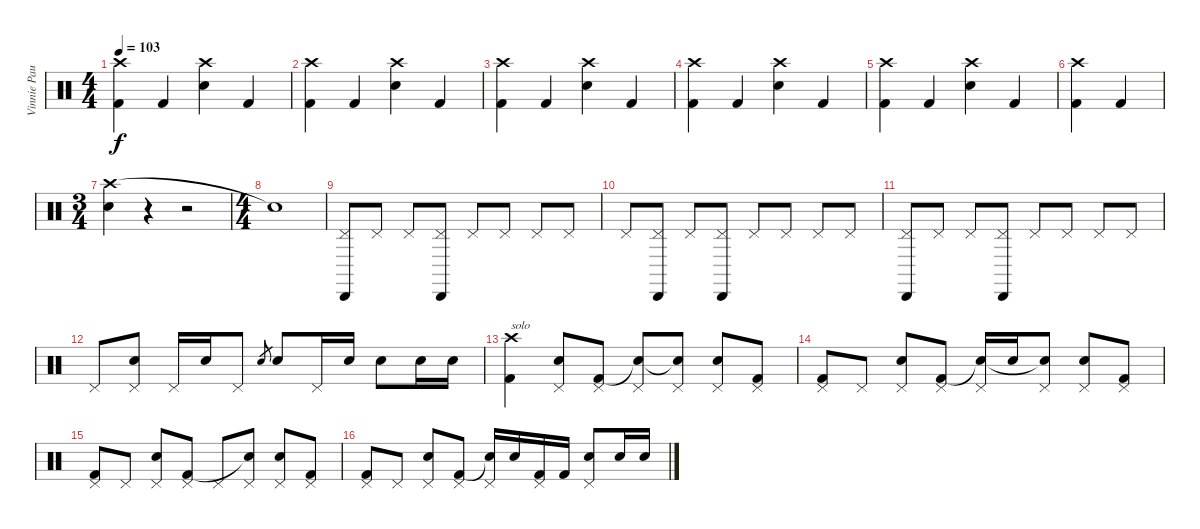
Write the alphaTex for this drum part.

\track ("Vinnie Paul" "Vinnie Pau") {instrument percussion}
\staff {score}
\articulation defaults
\ts (4 4)
\tempo 103
\clef neutral
\ks c
("Crash high (hit)" "Kick (hit) 2").4{dy f} "Kick (hit) 2".4 ("Crash high (hit)" "Electric Snare (hit)").4 "Kick (hit) 2".4 |
("Crash high (hit)" "Kick (hit) 2").4 "Kick (hit) 2".4 ("Crash high (hit)" "Electric Snare (hit)").4 "Kick (hit) 2".4 |
("Crash high (hit)" "Kick (hit) 2").4 "Kick (hit) 2".4 ("Crash high (hit)" "Electric Snare (hit)").4 "Kick (hit) 2".4 |
("Crash high (hit)" "Kick (hit) 2").4 "Kick (hit) 2".4 ("Crash high (hit)" "Electric Snare (hit)").4 "Kick (hit) 2".4 |
("Crash high (hit)" "Kick (hit) 2").4 "Kick (hit) 2".4 ("Crash high (hit)" "Electric Snare (hit)").4 "Kick (hit) 2".4 |
("Crash high (hit)" "Kick (hit) 2").4 "Kick (hit) 2".4 |
\ts (3 4)
("Crash high (hit)" "Electric Snare (hit)").4 r.4 r.2 |
\ts (4 4)
"Snare (hit)"{t}.1 |
("Pedal Hi-Hat (hit)" "Cabasa (hit)").8 "Pedal Hi-Hat (hit)".8 "Pedal Hi-Hat (hit)".8 ("Pedal Hi-Hat (hit)" "Cabasa (hit)").8 "Pedal Hi-Hat (hit)".8 "Pedal Hi-Hat (hit)".8 "Pedal Hi-Hat (hit)".8 "Pedal Hi-Hat (hit)".8 |
"Pedal Hi-Hat (hit)".8 ("Pedal Hi-Hat (hit)" "Cabasa (hit)").8 "Pedal Hi-Hat (hit)".8 ("Pedal Hi-Hat (hit)" "Cabasa (hit)").8 "Pedal Hi-Hat (hit)".8 "Pedal Hi-Hat (hit)".8 "Pedal Hi-Hat (hit)".8 "Pedal Hi-Hat (hit)".8 |
("Pedal Hi-Hat (hit)" "Cabasa (hit)").8 "Pedal Hi-Hat (hit)".8 "Pedal Hi-Hat (hit)".8 ("Pedal Hi-Hat (hit)" "Cabasa (hit)").8 "Pedal Hi-Hat (hit)".8 "Pedal Hi-Hat (hit)".8 "Pedal Hi-Hat (hit)".8 "Pedal Hi-Hat (hit)".8 |
"Pedal Hi-Hat (hit)".8 ("Pedal Hi-Hat (hit)" "Electric Snare (hit)").8 "Pedal Hi-Hat (hit)".16 "Electric Snare (hit)".16 "Pedal Hi-Hat (hit)".8 "Electric Snare (hit)".8{gr} "Electric Snare (hit)".8 "Pedal Hi-Hat (hit)".16 "Electric Snare (hit)".16 "Electric Snare (hit)".8 "Electric Snare (hit)".16 "Electric Snare (hit)".16 |
("Crash high (hit)" "Kick (hit) 2").4{txt "solo"} ("Pedal Hi-Hat (hit)" "Electric Snare (hit)").8 ("Pedal Hi-Hat (hit)" "Kick (hit) 2").8 ("Pedal Hi-Hat (hit)" "Snare (hit)"{t}).8 ("Pedal Hi-Hat (hit)" "Snare (hit)"{t}).8 ("Pedal Hi-Hat (hit)" "Electric Snare (hit)").8 ("Pedal Hi-Hat (hit)" "Kick (hit) 2").8 |
("Pedal Hi-Hat (hit)" "Kick (hit) 2").8 "Pedal Hi-Hat (hit)".8 ("Pedal Hi-Hat (hit)" "Electric Snare (hit)").8 ("Pedal Hi-Hat (hit)" "Kick (hit) 2").8 ("Pedal Hi-Hat (hit)" "Snare (hit)"{t}).16 "Electric Snare (hit)".16 ("Pedal Hi-Hat (hit)" "Snare (hit)"{t}).8 ("Pedal Hi-Hat (hit)" "Electric Snare (hit)").8 ("Pedal Hi-Hat (hit)" "Kick (hit) 2").8 |
("Pedal Hi-Hat (hit)" "Kick (hit) 2").8 "Pedal Hi-Hat (hit)".8 ("Pedal Hi-Hat (hit)" "Electric Snare (hit)").8 ("Pedal Hi-Hat (hit)" "Kick (hit) 2").8 "Pedal Hi-Hat (hit)".8 ("Pedal Hi-Hat (hit)" "Snare (hit)"{t}).8 ("Pedal Hi-Hat (hit)" "Electric Snare (hit)").8 ("Pedal Hi-Hat (hit)" "Kick (hit) 2").8 |
("Pedal Hi-Hat (hit)" "Kick (hit) 2").8 "Pedal Hi-Hat (hit)".8 ("Pedal Hi-Hat (hit)" "Electric Snare (hit)").8 ("Pedal Hi-Hat (hit)" "Kick (hit) 2").8 ("Pedal Hi-Hat (hit)" "Snare (hit)"{t}).16 "Electric Snare (hit)".16 ("Pedal Hi-Hat (hit)" "Kick (hit) 2").16 "Kick (hit) 2".16 ("Pedal Hi-Hat (hit)" "Electric Snare (hit)").8 "Electric Snare (hit)".16 "Electric Snare (hit)".16
